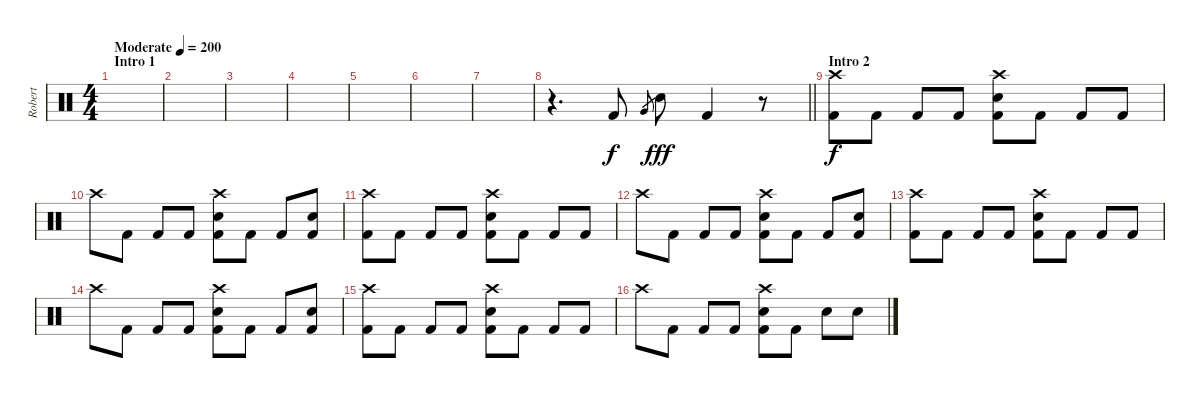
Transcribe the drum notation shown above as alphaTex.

\track ("Robert" "Robert") {instrument percussion}
\staff {score}
\articulation defaults
\ts (4 4)
\section ("" "Intro 1")
\tempo (200 "Moderate")
\clef neutral
\ks c
|
|
|
|
|
|
|
\barLineRight lightlight
r.4{d} "Kick (hit) 2".8 "Very Low Tom (hit)".8{gr dy f} "Electric Snare (hit)".8{dy fff} "Kick (hit) 2".4 r.8 |
\section ("" "Intro 2")
("Crash high (hit)" "Kick (hit) 2").8{dy f} "Kick (hit) 2".8 "Kick (hit) 2".8 "Kick (hit) 2".8 ("Crash high (hit)" "Electric Snare (hit)" "Kick (hit) 2").8 "Kick (hit) 2".8 "Kick (hit) 2".8 "Kick (hit) 2".8 |
"Crash high (hit)".8 "Kick (hit) 2".8 "Kick (hit) 2".8 "Kick (hit) 2".8 ("Crash high (hit)" "Electric Snare (hit)" "Kick (hit) 2").8 "Kick (hit) 2".8 "Kick (hit) 2".8 ("Electric Snare (hit)" "Kick (hit) 2").8 |
("Crash high (hit)" "Kick (hit) 2").8 "Kick (hit) 2".8 "Kick (hit) 2".8 "Kick (hit) 2".8 ("Crash high (hit)" "Electric Snare (hit)" "Kick (hit) 2").8 "Kick (hit) 2".8 "Kick (hit) 2".8 "Kick (hit) 2".8 |
"Crash high (hit)".8 "Kick (hit) 2".8 "Kick (hit) 2".8 "Kick (hit) 2".8 ("Crash high (hit)" "Electric Snare (hit)" "Kick (hit) 2").8 "Kick (hit) 2".8 "Kick (hit) 2".8 ("Electric Snare (hit)" "Kick (hit) 2").8 |
("Crash high (hit)" "Kick (hit) 2").8 "Kick (hit) 2".8 "Kick (hit) 2".8 "Kick (hit) 2".8 ("Crash high (hit)" "Electric Snare (hit)" "Kick (hit) 2").8 "Kick (hit) 2".8 "Kick (hit) 2".8 "Kick (hit) 2".8 |
"Crash high (hit)".8 "Kick (hit) 2".8 "Kick (hit) 2".8 "Kick (hit) 2".8 ("Crash high (hit)" "Electric Snare (hit)" "Kick (hit) 2").8 "Kick (hit) 2".8 "Kick (hit) 2".8 ("Electric Snare (hit)" "Kick (hit) 2").8 |
("Crash high (hit)" "Kick (hit) 2").8 "Kick (hit) 2".8 "Kick (hit) 2".8 "Kick (hit) 2".8 ("Crash high (hit)" "Electric Snare (hit)" "Kick (hit) 2").8 "Kick (hit) 2".8 "Kick (hit) 2".8 "Kick (hit) 2".8 |
"Crash high (hit)".8 "Kick (hit) 2".8 "Kick (hit) 2".8 "Kick (hit) 2".8 ("Crash high (hit)" "Electric Snare (hit)" "Kick (hit) 2").8 "Kick (hit) 2".8 "Electric Snare (hit)".8 "Electric Snare (hit)".8
